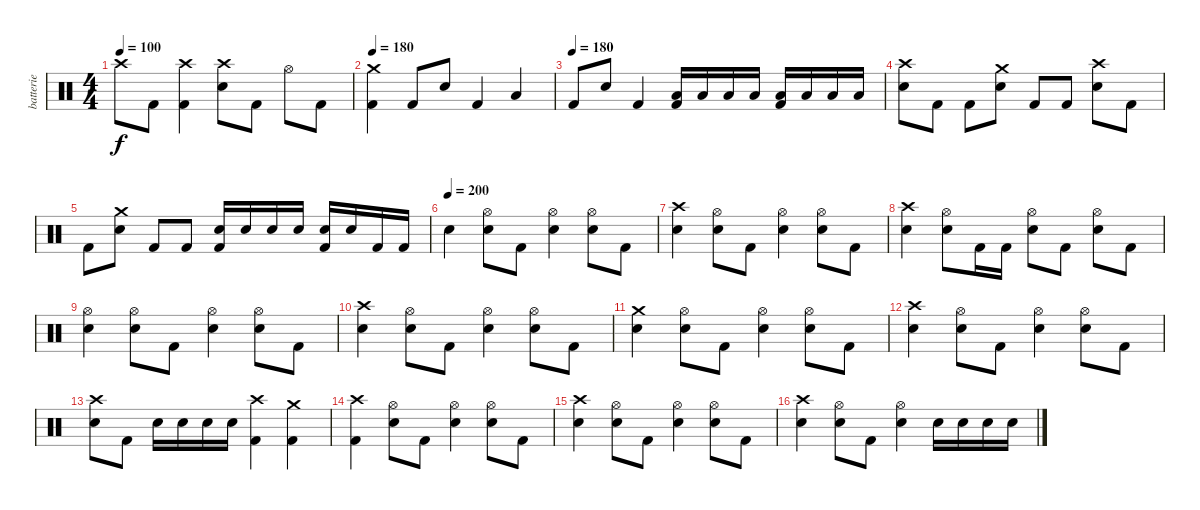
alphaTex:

\track ("batterie" "batterie") {instrument percussion}
\staff {score}
\articulation defaults
\ts (4 4)
\tempo 100
\clef neutral
\ks c "Crash high (hit)".8{dy f} "Kick (hit) 2".8
("Crash high (hit)" "Kick (hit) 2").4 ("Crash high (hit)" "Electric Snare (hit)").8 "Kick (hit) 2".8 "Hi-Hat (open)".8 "Kick (hit) 2".8 |
\tempo 180
("Crash medium (hit)" "Kick (hit) 2").4 "Kick (hit) 2".8 "Electric Snare (hit)".8 "Kick (hit) 2".4 "Low Tom (hit)".4 |
\tempo (180)
"Kick (hit) 2".8 "Electric Snare (hit)".8 "Kick (hit) 2".4 ("Low Tom (hit)" "Kick (hit) 2").16 "Low Tom (hit)".16 "Low Tom (hit)".16 "Low Tom (hit)".16 ("Low Floor Tom (hit)" "Kick (hit) 2").16 "Low Floor Tom (hit)".16 "Low Floor Tom (hit)".16 "Low Floor Tom (hit)".16 |
("Crash high (hit)" "Electric Snare (hit)").8 "Kick (hit) 2".8 "Kick (hit) 2".8 ("Crash medium (hit)" "Electric Snare (hit)").8 "Kick (hit) 2".8 "Kick (hit) 2".8 ("Crash high (hit)" "Electric Snare (hit)").8 "Kick (hit) 2".8 |
"Kick (hit) 2".8 ("Crash medium (hit)" "Electric Snare (hit)").8 "Kick (hit) 2".8 "Kick (hit) 2".8 ("Electric Snare (hit)" "Kick (hit) 2").16 "Electric Snare (hit)".16 "Electric Snare (hit)".16 "Electric Snare (hit)".16 ("Electric Snare (hit)" "Kick (hit) 2").16 "Electric Snare (hit)".16 "Kick (hit) 2".16 "Kick (hit) 2".16 |
\tempo (200)
"Electric Snare (hit)".4 ("Hi-Hat (open)" "Electric Snare (hit)").8 "Kick (hit) 2".8 ("Hi-Hat (open)" "Electric Snare (hit)").4 ("Hi-Hat (open)" "Electric Snare (hit)").8 "Kick (hit) 2".8 |
("Crash high (hit)" "Electric Snare (hit)").4 ("Hi-Hat (open)" "Electric Snare (hit)").8 "Kick (hit) 2".8 ("Hi-Hat (open)" "Electric Snare (hit)").4 ("Hi-Hat (open)" "Electric Snare (hit)").8 "Kick (hit) 2".8 |
("Crash high (hit)" "Electric Snare (hit)").4 ("Hi-Hat (open)" "Electric Snare (hit)").8 "Kick (hit) 2".16 "Kick (hit) 2".16 ("Hi-Hat (open)" "Electric Snare (hit)").8 "Kick (hit) 2".8 ("Hi-Hat (open)" "Electric Snare (hit)").8 "Kick (hit) 2".8 |
("Electric Snare (hit)" "Hi-Hat (open)").4 ("Hi-Hat (open)" "Electric Snare (hit)").8 "Kick (hit) 2".8 ("Hi-Hat (open)" "Electric Snare (hit)").4 ("Hi-Hat (open)" "Electric Snare (hit)").8 "Kick (hit) 2".8 |
("Crash high (hit)" "Electric Snare (hit)").4 ("Hi-Hat (open)" "Electric Snare (hit)").8 "Kick (hit) 2".8 ("Hi-Hat (open)" "Electric Snare (hit)").4 ("Hi-Hat (open)" "Electric Snare (hit)").8 "Kick (hit) 2".8 |
("Crash medium (hit)" "Electric Snare (hit)").4 ("Hi-Hat (open)" "Electric Snare (hit)").8 "Kick (hit) 2".8 ("Hi-Hat (open)" "Electric Snare (hit)").4 ("Hi-Hat (open)" "Electric Snare (hit)").8 "Kick (hit) 2".8 |
("Crash high (hit)" "Electric Snare (hit)").4 ("Hi-Hat (open)" "Electric Snare (hit)").8 "Kick (hit) 2".8 ("Hi-Hat (open)" "Electric Snare (hit)").4 ("Hi-Hat (open)" "Electric Snare (hit)").8 "Kick (hit) 2".8 |
("Crash high (hit)" "Electric Snare (hit)").8 "Kick (hit) 2".8 "Electric Snare (hit)".16 "Electric Snare (hit)".16 "Electric Snare (hit)".16 "Electric Snare (hit)".16 ("Crash high (hit)" "Kick (hit) 2").4 ("Crash medium (hit)" "Kick (hit) 2").4 |
("Crash high (hit)" "Kick (hit) 2").4 ("Hi-Hat (open)" "Electric Snare (hit)").8 "Kick (hit) 2".8 ("Hi-Hat (open)" "Electric Snare (hit)").4 ("Hi-Hat (open)" "Electric Snare (hit)").8 "Kick (hit) 2".8 |
("Crash high (hit)" "Electric Snare (hit)").4 ("Hi-Hat (open)" "Electric Snare (hit)").8 "Kick (hit) 2".8 ("Hi-Hat (open)" "Electric Snare (hit)").4 ("Hi-Hat (open)" "Electric Snare (hit)").8 "Kick (hit) 2".8 |
("Crash high (hit)" "Electric Snare (hit)").4 ("Hi-Hat (open)" "Electric Snare (hit)").8 "Kick (hit) 2".8 ("Hi-Hat (open)" "Electric Snare (hit)").4 "Electric Snare (hit)".16 "Electric Snare (hit)".16 "Electric Snare (hit)".16 "Electric Snare (hit)".16
